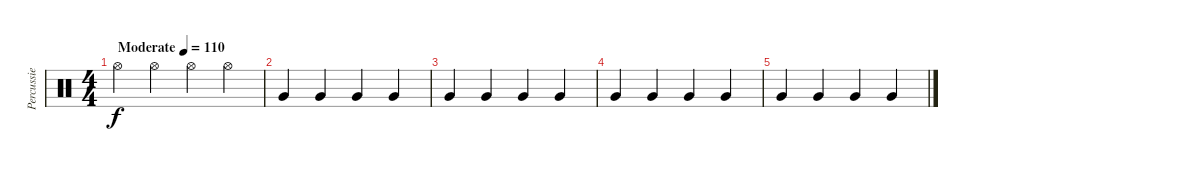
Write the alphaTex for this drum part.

\track ("Percussie" "Percussie") {instrument percussion}
\staff {score}
\articulation defaults
\ts (4 4)
\tempo (110 "Moderate")
\clef neutral
\ks c "Hi-Hat (open)".4{dy f} "Hi-Hat (open)".4 "Hi-Hat (open)".4 "Hi-Hat (open)".4
|
"Very Low Tom (hit)".4 "Very Low Tom (hit)".4 "Very Low Tom (hit)".4 "Very Low Tom (hit)".4 |
"Very Low Tom (hit)".4 "Very Low Tom (hit)".4 "Very Low Tom (hit)".4 "Very Low Tom (hit)".4 |
"Very Low Tom (hit)".4 "Very Low Tom (hit)".4 "Very Low Tom (hit)".4 "Very Low Tom (hit)".4 |
"Very Low Tom (hit)".4 "Very Low Tom (hit)".4 "Very Low Tom (hit)".4 "Very Low Tom (hit)".4
